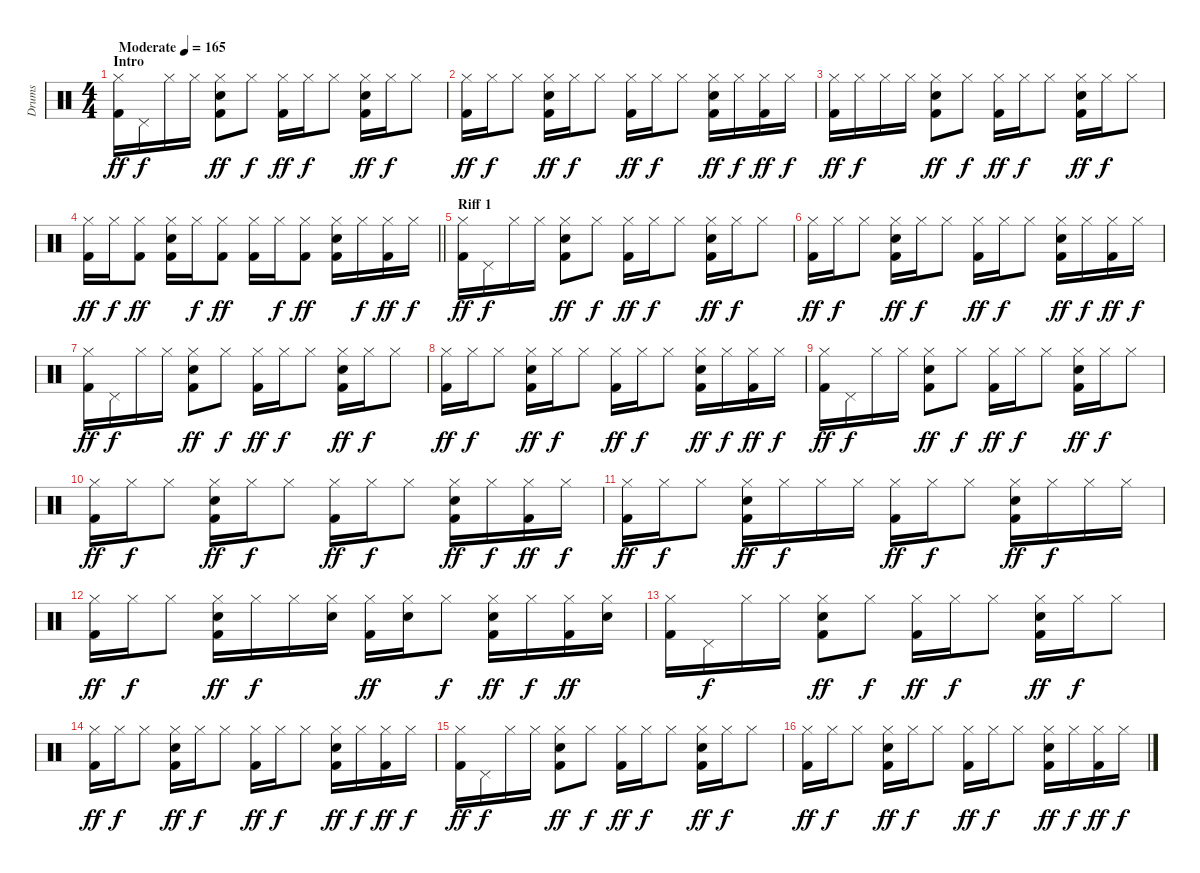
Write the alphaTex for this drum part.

\track ("Drums" "Drums") {instrument percussion}
\staff {score}
\articulation defaults
\ts (4 4)
\section ("" "Intro")
\tempo (165 "Moderate")
\clef neutral
\ks c
("Kick (hit) 2" "Hi-Hat (closed)").16{dy ff} "Pedal Hi-Hat (hit)".16{dy f} "Hi-Hat (closed)".16 "Hi-Hat (closed)".16 ("Kick (hit) 2" "Snare (hit) 2" "Hi-Hat (closed)").8{dy ff} "Hi-Hat (closed)".8{dy f} ("Kick (hit) 2" "Hi-Hat (closed)").16{dy ff} "Hi-Hat (closed)".16{dy f} "Hi-Hat (closed)".8 ("Kick (hit) 2" "Snare (hit) 2" "Hi-Hat (closed)").16{dy ff} "Hi-Hat (closed)".16{dy f} "Hi-Hat (closed)".8 |
("Kick (hit) 2" "Hi-Hat (closed)").16{dy ff} "Hi-Hat (closed)".16{dy f} "Hi-Hat (closed)".8 ("Kick (hit) 2" "Snare (hit) 2" "Hi-Hat (closed)").16{dy ff} "Hi-Hat (closed)".16{dy f} "Hi-Hat (closed)".8 ("Kick (hit) 2" "Hi-Hat (closed)").16{dy ff} "Hi-Hat (closed)".16{dy f} "Hi-Hat (closed)".8 ("Kick (hit) 2" "Snare (hit) 2" "Hi-Hat (closed)").16{dy ff} "Hi-Hat (closed)".16{dy f} ("Kick (hit) 2" "Hi-Hat (closed)").16{dy ff} "Hi-Hat (closed)".16{dy f} |
("Kick (hit) 2" "Hi-Hat (closed)").16{dy ff} "Hi-Hat (closed)".16{dy f} "Hi-Hat (closed)".16 "Hi-Hat (closed)".16 ("Kick (hit) 2" "Snare (hit) 2" "Hi-Hat (closed)").8{dy ff} "Hi-Hat (closed)".8{dy f} ("Kick (hit) 2" "Hi-Hat (closed)").16{dy ff} "Hi-Hat (closed)".16{dy f} "Hi-Hat (closed)".8 ("Kick (hit) 2" "Snare (hit) 2" "Hi-Hat (closed)").16{dy ff} "Hi-Hat (closed)".16{dy f} "Hi-Hat (closed)".8 |
\barLineRight lightlight
("Kick (hit) 2" "Hi-Hat (closed)").16{dy ff} "Hi-Hat (closed)".16{dy f} ("Kick (hit) 2" "Hi-Hat (closed)").8{dy ff} ("Kick (hit) 2" "Snare (hit) 2" "Hi-Hat (closed)").16 "Hi-Hat (closed)".16{dy f} ("Kick (hit) 2" "Hi-Hat (closed)").8{dy ff} ("Kick (hit) 2" "Hi-Hat (closed)").16 "Hi-Hat (closed)".16{dy f} ("Kick (hit) 2" "Hi-Hat (closed)").8{dy ff} ("Kick (hit) 2" "Snare (hit) 2" "Hi-Hat (closed)").16 "Hi-Hat (closed)".16{dy f} ("Kick (hit) 2" "Hi-Hat (closed)").16{dy ff} "Hi-Hat (closed)".16{dy f} |
\section ("" "Riff 1")
("Kick (hit) 2" "Hi-Hat (closed)").16{dy ff} "Pedal Hi-Hat (hit)".16{dy f} "Hi-Hat (closed)".16 "Hi-Hat (closed)".16 ("Kick (hit) 2" "Snare (hit) 2" "Hi-Hat (closed)").8{dy ff} "Hi-Hat (closed)".8{dy f} ("Kick (hit) 2" "Hi-Hat (closed)").16{dy ff} "Hi-Hat (closed)".16{dy f} "Hi-Hat (closed)".8 ("Kick (hit) 2" "Snare (hit) 2" "Hi-Hat (closed)").16{dy ff} "Hi-Hat (closed)".16{dy f} "Hi-Hat (closed)".8 |
("Kick (hit) 2" "Hi-Hat (closed)").16{dy ff} "Hi-Hat (closed)".16{dy f} "Hi-Hat (closed)".8 ("Kick (hit) 2" "Snare (hit) 2" "Hi-Hat (closed)").16{dy ff} "Hi-Hat (closed)".16{dy f} "Hi-Hat (closed)".8 ("Kick (hit) 2" "Hi-Hat (closed)").16{dy ff} "Hi-Hat (closed)".16{dy f} "Hi-Hat (closed)".8 ("Kick (hit) 2" "Snare (hit) 2" "Hi-Hat (closed)").16{dy ff} "Hi-Hat (closed)".16{dy f} ("Kick (hit) 2" "Hi-Hat (closed)").16{dy ff} "Hi-Hat (closed)".16{dy f} |
("Kick (hit) 2" "Hi-Hat (closed)").16{dy ff} "Pedal Hi-Hat (hit)".16{dy f} "Hi-Hat (closed)".16 "Hi-Hat (closed)".16 ("Kick (hit) 2" "Snare (hit) 2" "Hi-Hat (closed)").8{dy ff} "Hi-Hat (closed)".8{dy f} ("Kick (hit) 2" "Hi-Hat (closed)").16{dy ff} "Hi-Hat (closed)".16{dy f} "Hi-Hat (closed)".8 ("Kick (hit) 2" "Snare (hit) 2" "Hi-Hat (closed)").16{dy ff} "Hi-Hat (closed)".16{dy f} "Hi-Hat (closed)".8 |
("Kick (hit) 2" "Hi-Hat (closed)").16{dy ff} "Hi-Hat (closed)".16{dy f} "Hi-Hat (closed)".8 ("Kick (hit) 2" "Snare (hit) 2" "Hi-Hat (closed)").16{dy ff} "Hi-Hat (closed)".16{dy f} "Hi-Hat (closed)".8 ("Kick (hit) 2" "Hi-Hat (closed)").16{dy ff} "Hi-Hat (closed)".16{dy f} "Hi-Hat (closed)".8 ("Kick (hit) 2" "Snare (hit) 2" "Hi-Hat (closed)").16{dy ff} "Hi-Hat (closed)".16{dy f} ("Kick (hit) 2" "Hi-Hat (closed)").16{dy ff} "Hi-Hat (closed)".16{dy f} |
("Kick (hit) 2" "Hi-Hat (closed)").16{dy ff} "Pedal Hi-Hat (hit)".16{dy f} "Hi-Hat (closed)".16 "Hi-Hat (closed)".16 ("Kick (hit) 2" "Snare (hit) 2" "Hi-Hat (closed)").8{dy ff} "Hi-Hat (closed)".8{dy f} ("Kick (hit) 2" "Hi-Hat (closed)").16{dy ff} "Hi-Hat (closed)".16{dy f} "Hi-Hat (closed)".8 ("Kick (hit) 2" "Snare (hit) 2" "Hi-Hat (closed)").16{dy ff} "Hi-Hat (closed)".16{dy f} "Hi-Hat (closed)".8 |
("Kick (hit) 2" "Hi-Hat (closed)").16{dy ff} "Hi-Hat (closed)".16{dy f} "Hi-Hat (closed)".8 ("Kick (hit) 2" "Snare (hit) 2" "Hi-Hat (closed)").16{dy ff} "Hi-Hat (closed)".16{dy f} "Hi-Hat (closed)".8 ("Kick (hit) 2" "Hi-Hat (closed)").16{dy ff} "Hi-Hat (closed)".16{dy f} "Hi-Hat (closed)".8 ("Kick (hit) 2" "Snare (hit) 2" "Hi-Hat (closed)").16{dy ff} "Hi-Hat (closed)".16{dy f} ("Kick (hit) 2" "Hi-Hat (closed)").16{dy ff} "Hi-Hat (closed)".16{dy f} |
("Kick (hit) 2" "Hi-Hat (closed)").16{dy ff} "Hi-Hat (closed)".16{dy f} "Hi-Hat (closed)".8 ("Kick (hit) 2" "Snare (hit) 2" "Hi-Hat (closed)").16{dy ff} "Hi-Hat (closed)".16{dy f} "Hi-Hat (closed)".16 "Hi-Hat (closed)".16 ("Kick (hit) 2" "Hi-Hat (closed)").16{dy ff} "Hi-Hat (closed)".16{dy f} "Hi-Hat (closed)".8 ("Kick (hit) 2" "Snare (hit) 2" "Hi-Hat (closed)").16{dy ff} "Hi-Hat (closed)".16{dy f} "Hi-Hat (closed)".16 "Hi-Hat (closed)".16 |
("Kick (hit) 2" "Hi-Hat (closed)").16{dy ff} "Hi-Hat (closed)".16{dy f} "Hi-Hat (closed)".8 ("Kick (hit) 2" "Snare (hit) 2" "Hi-Hat (closed)").16{dy ff} "Hi-Hat (closed)".16{dy f} "Hi-Hat (closed)".16 ("Snare (hit) 2" "Hi-Hat (closed)").16 ("Kick (hit) 2" "Hi-Hat (closed)").16{dy ff} ("Snare (hit) 2" "Hi-Hat (closed)").16 "Hi-Hat (closed)".8{dy f} ("Kick (hit) 2" "Snare (hit) 2" "Hi-Hat (closed)").16{dy ff} "Hi-Hat (closed)".16{dy f} ("Kick (hit) 2" "Hi-Hat (closed)").16{dy ff} ("Snare (hit) 2" "Hi-Hat (closed)").16 |
("Kick (hit) 2" "Hi-Hat (closed)").16 "Pedal Hi-Hat (hit)".16{dy f} "Hi-Hat (closed)".16 "Hi-Hat (closed)".16 ("Kick (hit) 2" "Snare (hit) 2" "Hi-Hat (closed)").8{dy ff} "Hi-Hat (closed)".8{dy f} ("Kick (hit) 2" "Hi-Hat (closed)").16{dy ff} "Hi-Hat (closed)".16{dy f} "Hi-Hat (closed)".8 ("Kick (hit) 2" "Snare (hit) 2" "Hi-Hat (closed)").16{dy ff} "Hi-Hat (closed)".16{dy f} "Hi-Hat (closed)".8 |
("Kick (hit) 2" "Hi-Hat (closed)").16{dy ff} "Hi-Hat (closed)".16{dy f} "Hi-Hat (closed)".8 ("Kick (hit) 2" "Snare (hit) 2" "Hi-Hat (closed)").16{dy ff} "Hi-Hat (closed)".16{dy f} "Hi-Hat (closed)".8 ("Kick (hit) 2" "Hi-Hat (closed)").16{dy ff} "Hi-Hat (closed)".16{dy f} "Hi-Hat (closed)".8 ("Kick (hit) 2" "Snare (hit) 2" "Hi-Hat (closed)").16{dy ff} "Hi-Hat (closed)".16{dy f} ("Kick (hit) 2" "Hi-Hat (closed)").16{dy ff} "Hi-Hat (closed)".16{dy f} |
("Kick (hit) 2" "Hi-Hat (closed)").16{dy ff} "Pedal Hi-Hat (hit)".16{dy f} "Hi-Hat (closed)".16 "Hi-Hat (closed)".16 ("Kick (hit) 2" "Snare (hit) 2" "Hi-Hat (closed)").8{dy ff} "Hi-Hat (closed)".8{dy f} ("Kick (hit) 2" "Hi-Hat (closed)").16{dy ff} "Hi-Hat (closed)".16{dy f} "Hi-Hat (closed)".8 ("Kick (hit) 2" "Snare (hit) 2" "Hi-Hat (closed)").16{dy ff} "Hi-Hat (closed)".16{dy f} "Hi-Hat (closed)".8 |
("Kick (hit) 2" "Hi-Hat (closed)").16{dy ff} "Hi-Hat (closed)".16{dy f} "Hi-Hat (closed)".8 ("Kick (hit) 2" "Snare (hit) 2" "Hi-Hat (closed)").16{dy ff} "Hi-Hat (closed)".16{dy f} "Hi-Hat (closed)".8 ("Kick (hit) 2" "Hi-Hat (closed)").16{dy ff} "Hi-Hat (closed)".16{dy f} "Hi-Hat (closed)".8 ("Kick (hit) 2" "Snare (hit) 2" "Hi-Hat (closed)").16{dy ff} "Hi-Hat (closed)".16{dy f} ("Kick (hit) 2" "Hi-Hat (closed)").16{dy ff} "Hi-Hat (closed)".16{dy f}
